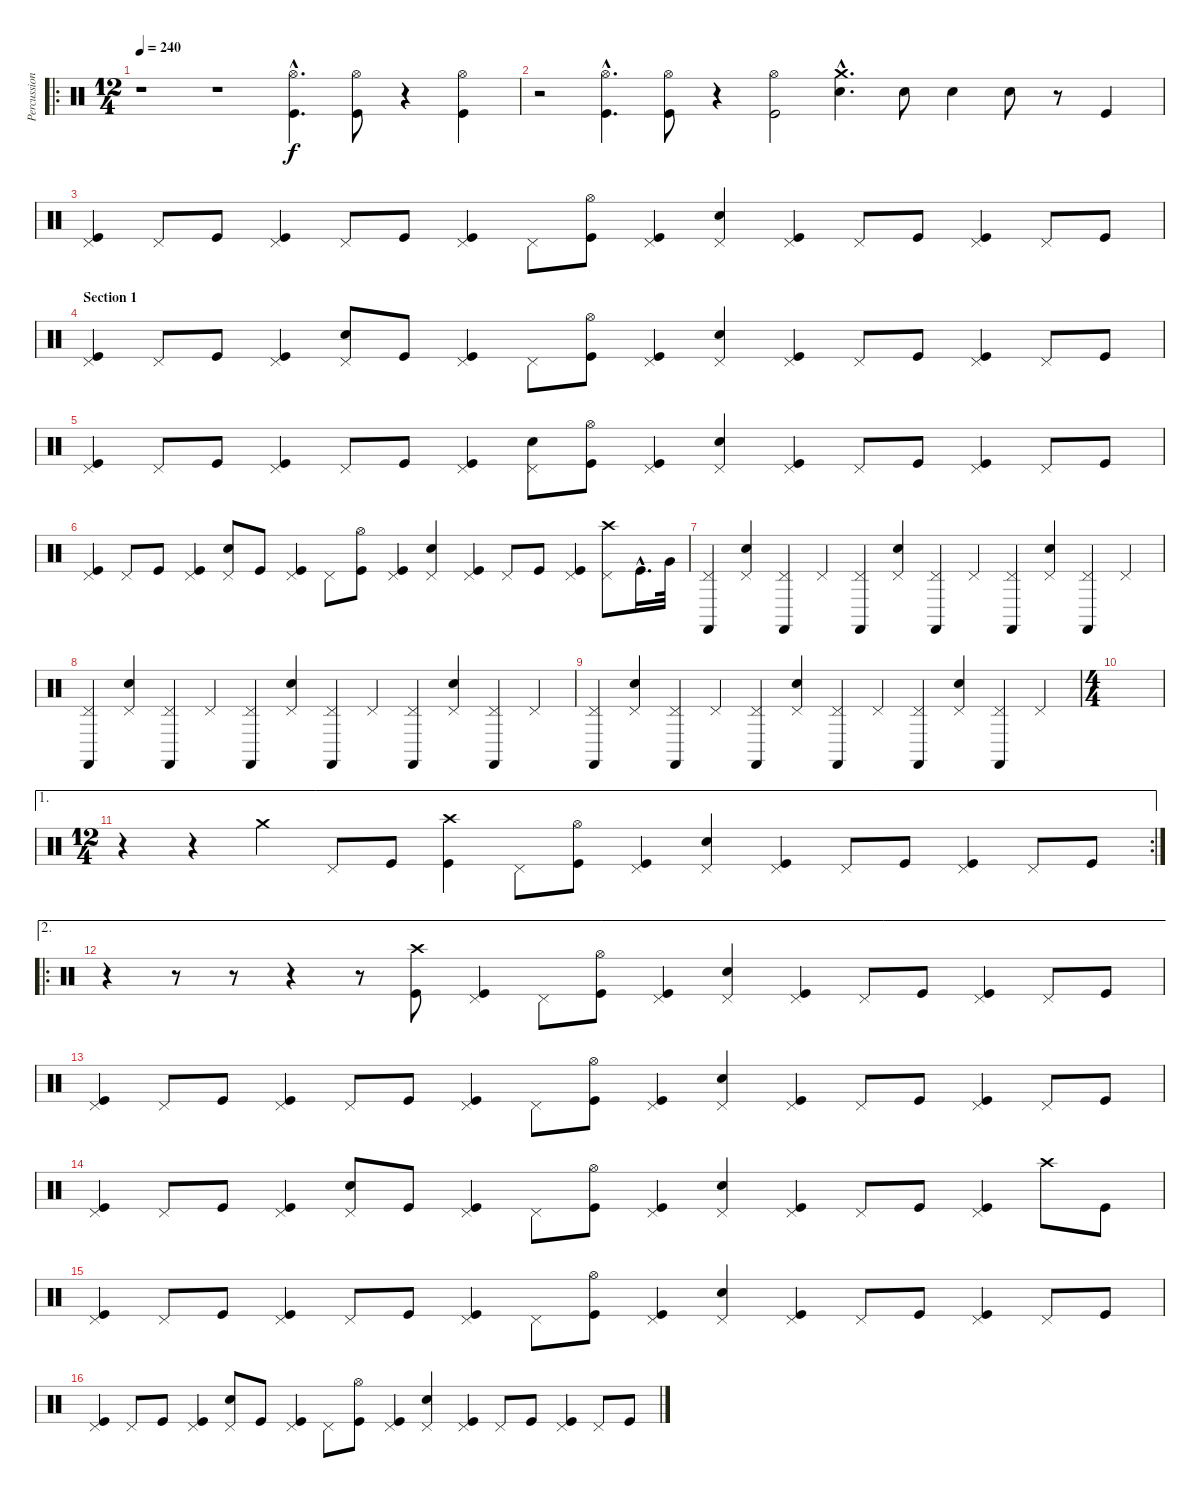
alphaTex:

\track ("Percussion" "Percussion") {instrument percussion}
\staff {score}
\articulation defaults
\ro
\ts (12 4)
\tempo 240
\clef neutral
\ks c
r.1{dy f} r.1 ("Hi-Hat (open)"{hac} "Kick (hit)"{hac}).4{d} ("Hi-Hat (open)" "Kick (hit)").8 r.4 ("Hi-Hat (open)" "Kick (hit)").4 |
r.2 ("Hi-Hat (open)"{hac} "Kick (hit)"{hac}).4{d} ("Hi-Hat (open)" "Kick (hit)").8 r.4 ("Hi-Hat (open)" "Kick (hit)").2 ("Electric Snare (hit)"{hac} "Crash medium (hit)"{hac}).4{d} "Electric Snare (hit)".8 "Electric Snare (hit)".4 "Electric Snare (hit)".8 r.8 "Kick (hit)".4 |
("Pedal Hi-Hat (hit)" "Kick (hit)").4 "Pedal Hi-Hat (hit)".8 "Kick (hit)".8 ("Pedal Hi-Hat (hit)" "Kick (hit)").4 "Pedal Hi-Hat (hit)".8 "Kick (hit)".8 ("Pedal Hi-Hat (hit)" "Kick (hit)").4 "Pedal Hi-Hat (hit)".8 ("Hi-Hat (open)" "Kick (hit)").8 ("Pedal Hi-Hat (hit)" "Kick (hit)").4 ("Pedal Hi-Hat (hit)" "Electric Snare (hit)").4 ("Pedal Hi-Hat (hit)" "Kick (hit)").4 "Pedal Hi-Hat (hit)".8 "Kick (hit)".8 ("Pedal Hi-Hat (hit)" "Kick (hit)").4 "Pedal Hi-Hat (hit)".8 "Kick (hit)".8 |
\section ("" "Section 1")
("Pedal Hi-Hat (hit)" "Kick (hit)").4 "Pedal Hi-Hat (hit)".8 "Kick (hit)".8 ("Pedal Hi-Hat (hit)" "Kick (hit)").4 ("Pedal Hi-Hat (hit)" "Electric Snare (hit)").8 "Kick (hit)".8 ("Pedal Hi-Hat (hit)" "Kick (hit)").4 "Pedal Hi-Hat (hit)".8 ("Hi-Hat (open)" "Kick (hit)").8 ("Pedal Hi-Hat (hit)" "Kick (hit)").4 ("Pedal Hi-Hat (hit)" "Electric Snare (hit)").4 ("Pedal Hi-Hat (hit)" "Kick (hit)").4 "Pedal Hi-Hat (hit)".8 "Kick (hit)".8 ("Pedal Hi-Hat (hit)" "Kick (hit)").4 "Pedal Hi-Hat (hit)".8 "Kick (hit)".8 |
("Pedal Hi-Hat (hit)" "Kick (hit)").4 "Pedal Hi-Hat (hit)".8 "Kick (hit)".8 ("Pedal Hi-Hat (hit)" "Kick (hit)").4 "Pedal Hi-Hat (hit)".8 "Kick (hit)".8 ("Pedal Hi-Hat (hit)" "Kick (hit)").4 ("Pedal Hi-Hat (hit)" "Electric Snare (hit)").8 ("Hi-Hat (open)" "Kick (hit)").8 ("Pedal Hi-Hat (hit)" "Kick (hit)").4 ("Pedal Hi-Hat (hit)" "Electric Snare (hit)").4 ("Pedal Hi-Hat (hit)" "Kick (hit)").4 "Pedal Hi-Hat (hit)".8 "Kick (hit)".8 ("Pedal Hi-Hat (hit)" "Kick (hit)").4 "Pedal Hi-Hat (hit)".8 "Kick (hit)".8 |
("Pedal Hi-Hat (hit)" "Kick (hit)").4 "Pedal Hi-Hat (hit)".8 "Kick (hit)".8 ("Pedal Hi-Hat (hit)" "Kick (hit)").4 ("Pedal Hi-Hat (hit)" "Electric Snare (hit)").8 "Kick (hit)".8 ("Pedal Hi-Hat (hit)" "Kick (hit)").4 "Pedal Hi-Hat (hit)".8 ("Hi-Hat (open)" "Kick (hit)").8 ("Pedal Hi-Hat (hit)" "Kick (hit)").4 ("Pedal Hi-Hat (hit)" "Electric Snare (hit)").4 ("Pedal Hi-Hat (hit)" "Kick (hit)").4 "Pedal Hi-Hat (hit)".8 "Kick (hit)".8 ("Pedal Hi-Hat (hit)" "Kick (hit)").4 ("Pedal Hi-Hat (hit)" "Crash high (hit)").8 "Kick (hit)"{hac}.16{d} "Very Low Tom (hit)".32 |
("Pedal Hi-Hat (hit)" "Castanets (hit)").4 ("Pedal Hi-Hat (hit)" "Hand Clap (hit)").4 ("Pedal Hi-Hat (hit)" "Castanets (hit)").4 "Pedal Hi-Hat (hit)".4 ("Pedal Hi-Hat (hit)" "Castanets (hit)").4 ("Pedal Hi-Hat (hit)" "Hand Clap (hit)").4 ("Pedal Hi-Hat (hit)" "Castanets (hit)").4 "Pedal Hi-Hat (hit)".4 ("Pedal Hi-Hat (hit)" "Castanets (hit)").4 ("Pedal Hi-Hat (hit)" "Hand Clap (hit)").4 ("Pedal Hi-Hat (hit)" "Castanets (hit)").4 "Pedal Hi-Hat (hit)".4 |
("Pedal Hi-Hat (hit)" "Castanets (hit)").4 ("Pedal Hi-Hat (hit)" "Hand Clap (hit)").4 ("Pedal Hi-Hat (hit)" "Castanets (hit)").4 "Pedal Hi-Hat (hit)".4 ("Pedal Hi-Hat (hit)" "Castanets (hit)").4 ("Pedal Hi-Hat (hit)" "Hand Clap (hit)").4 ("Pedal Hi-Hat (hit)" "Castanets (hit)").4 "Pedal Hi-Hat (hit)".4 ("Pedal Hi-Hat (hit)" "Castanets (hit)").4 ("Pedal Hi-Hat (hit)" "Hand Clap (hit)").4 ("Pedal Hi-Hat (hit)" "Castanets (hit)").4 "Pedal Hi-Hat (hit)".4 |
("Pedal Hi-Hat (hit)" "Castanets (hit)").4 ("Pedal Hi-Hat (hit)" "Hand Clap (hit)").4 ("Pedal Hi-Hat (hit)" "Castanets (hit)").4 "Pedal Hi-Hat (hit)".4 ("Pedal Hi-Hat (hit)" "Castanets (hit)").4 ("Pedal Hi-Hat (hit)" "Hand Clap (hit)").4 ("Pedal Hi-Hat (hit)" "Castanets (hit)").4 "Pedal Hi-Hat (hit)".4 ("Pedal Hi-Hat (hit)" "Castanets (hit)").4 ("Pedal Hi-Hat (hit)" "Hand Clap (hit)").4 ("Pedal Hi-Hat (hit)" "Castanets (hit)").4 "Pedal Hi-Hat (hit)".4 |
\ts (4 4)
|
\ae 1
\rc 2
\ts (12 4)
r.4 r.4 "Crash medium (hit)".4 "Pedal Hi-Hat (hit)".8 "Kick (hit)".8 ("Crash high (hit)" "Kick (hit)").4 "Pedal Hi-Hat (hit)".8 ("Hi-Hat (open)" "Kick (hit)").8 ("Pedal Hi-Hat (hit)" "Kick (hit)").4 ("Pedal Hi-Hat (hit)" "Electric Snare (hit)").4 ("Pedal Hi-Hat (hit)" "Kick (hit)").4 "Pedal Hi-Hat (hit)".8 "Kick (hit)".8 ("Pedal Hi-Hat (hit)" "Kick (hit)").4 "Pedal Hi-Hat (hit)".8 "Kick (hit)".8 |
\ae 2
\ro
r.4 r.8 r.8 r.4 r.8 ("Crash high (hit)" "Kick (hit)").8 ("Pedal Hi-Hat (hit)" "Kick (hit)").4 "Pedal Hi-Hat (hit)".8 ("Hi-Hat (open)" "Kick (hit)").8 ("Pedal Hi-Hat (hit)" "Kick (hit)").4 ("Pedal Hi-Hat (hit)" "Electric Snare (hit)").4 ("Pedal Hi-Hat (hit)" "Kick (hit)").4 "Pedal Hi-Hat (hit)".8 "Kick (hit)".8 ("Pedal Hi-Hat (hit)" "Kick (hit)").4 "Pedal Hi-Hat (hit)".8 "Kick (hit)".8 |
("Pedal Hi-Hat (hit)" "Kick (hit)").4 "Pedal Hi-Hat (hit)".8 "Kick (hit)".8 ("Pedal Hi-Hat (hit)" "Kick (hit)").4 "Pedal Hi-Hat (hit)".8 "Kick (hit)".8 ("Pedal Hi-Hat (hit)" "Kick (hit)").4 "Pedal Hi-Hat (hit)".8 ("Hi-Hat (open)" "Kick (hit)").8 ("Pedal Hi-Hat (hit)" "Kick (hit)").4 ("Pedal Hi-Hat (hit)" "Electric Snare (hit)").4 ("Pedal Hi-Hat (hit)" "Kick (hit)").4 "Pedal Hi-Hat (hit)".8 "Kick (hit)".8 ("Pedal Hi-Hat (hit)" "Kick (hit)").4 "Pedal Hi-Hat (hit)".8 "Kick (hit)".8 |
("Pedal Hi-Hat (hit)" "Kick (hit)").4 "Pedal Hi-Hat (hit)".8 "Kick (hit)".8 ("Pedal Hi-Hat (hit)" "Kick (hit)").4 ("Pedal Hi-Hat (hit)" "Electric Snare (hit)").8 "Kick (hit)".8 ("Pedal Hi-Hat (hit)" "Kick (hit)").4 "Pedal Hi-Hat (hit)".8 ("Hi-Hat (open)" "Kick (hit)").8 ("Pedal Hi-Hat (hit)" "Kick (hit)").4 ("Pedal Hi-Hat (hit)" "Electric Snare (hit)").4 ("Pedal Hi-Hat (hit)" "Kick (hit)").4 "Pedal Hi-Hat (hit)".8 "Kick (hit)".8 ("Pedal Hi-Hat (hit)" "Kick (hit)").4 "Crash high (hit)".8 "Kick (hit)".8 |
("Pedal Hi-Hat (hit)" "Kick (hit)").4 "Pedal Hi-Hat (hit)".8 "Kick (hit)".8 ("Pedal Hi-Hat (hit)" "Kick (hit)").4 "Pedal Hi-Hat (hit)".8 "Kick (hit)".8 ("Pedal Hi-Hat (hit)" "Kick (hit)").4 "Pedal Hi-Hat (hit)".8 ("Hi-Hat (open)" "Kick (hit)").8 ("Pedal Hi-Hat (hit)" "Kick (hit)").4 ("Pedal Hi-Hat (hit)" "Electric Snare (hit)").4 ("Pedal Hi-Hat (hit)" "Kick (hit)").4 "Pedal Hi-Hat (hit)".8 "Kick (hit)".8 ("Pedal Hi-Hat (hit)" "Kick (hit)").4 "Pedal Hi-Hat (hit)".8 "Kick (hit)".8 |
("Pedal Hi-Hat (hit)" "Kick (hit)").4 "Pedal Hi-Hat (hit)".8 "Kick (hit)".8 ("Pedal Hi-Hat (hit)" "Kick (hit)").4 ("Pedal Hi-Hat (hit)" "Electric Snare (hit)").8 "Kick (hit)".8 ("Pedal Hi-Hat (hit)" "Kick (hit)").4 "Pedal Hi-Hat (hit)".8 ("Hi-Hat (open)" "Kick (hit)").8 ("Pedal Hi-Hat (hit)" "Kick (hit)").4 ("Pedal Hi-Hat (hit)" "Electric Snare (hit)").4 ("Pedal Hi-Hat (hit)" "Kick (hit)").4 "Pedal Hi-Hat (hit)".8 "Kick (hit)".8 ("Pedal Hi-Hat (hit)" "Kick (hit)").4 "Pedal Hi-Hat (hit)".8 "Kick (hit)".8
